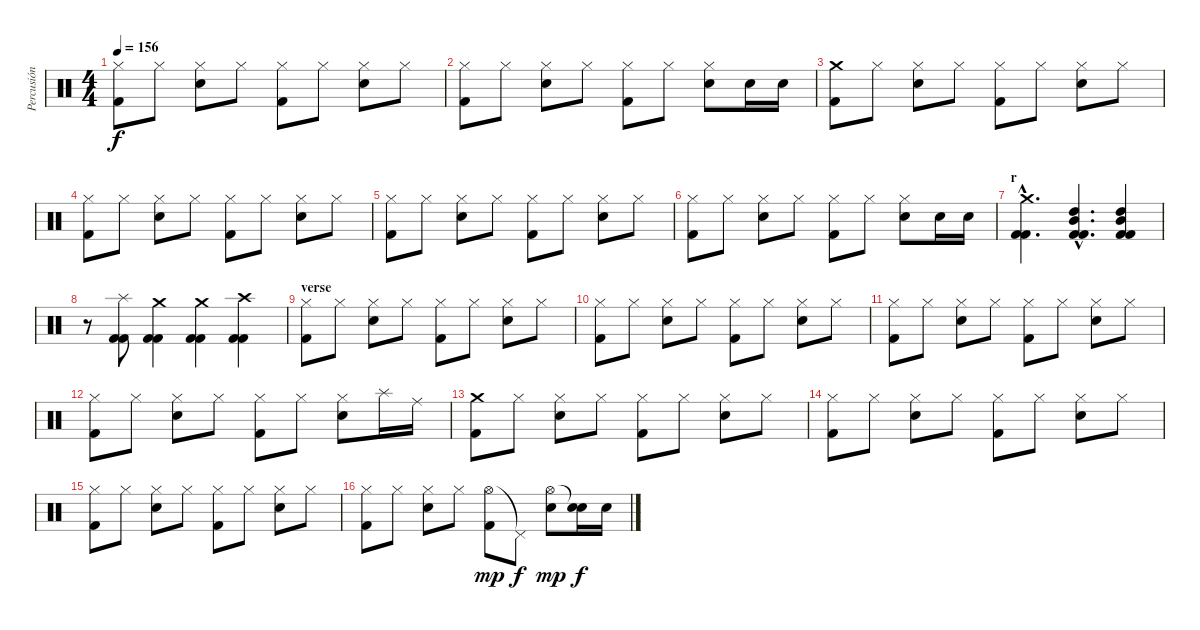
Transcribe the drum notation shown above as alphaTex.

\track ("Percusión" "Percusión") {instrument percussion}
\staff {score}
\articulation defaults
\ts (4 4)
\tempo 156
\clef neutral
\ks c
("Hi-Hat (closed)" "Kick (hit) 2").8{dy f} "Hi-Hat (closed)".8 ("Hi-Hat (closed)" "Electric Snare (hit)").8 "Hi-Hat (closed)".8 ("Hi-Hat (closed)" "Kick (hit) 2").8 "Hi-Hat (closed)".8 ("Hi-Hat (closed)" "Electric Snare (hit)").8 "Hi-Hat (closed)".8 |
("Hi-Hat (closed)" "Kick (hit) 2").8 "Hi-Hat (closed)".8 ("Hi-Hat (closed)" "Electric Snare (hit)").8 "Hi-Hat (closed)".8 ("Hi-Hat (closed)" "Kick (hit) 2").8 "Hi-Hat (closed)".8 ("Hi-Hat (closed)" "Electric Snare (hit)").8 "Electric Snare (hit)".16 "Electric Snare (hit)".16 |
("Crash medium (hit)" "Kick (hit) 2").8 "Hi-Hat (closed)".8 ("Hi-Hat (closed)" "Electric Snare (hit)").8 "Hi-Hat (closed)".8 ("Hi-Hat (closed)" "Kick (hit) 2").8 "Hi-Hat (closed)".8 ("Hi-Hat (closed)" "Electric Snare (hit)").8 "Hi-Hat (closed)".8 |
("Hi-Hat (closed)" "Kick (hit) 2").8 "Hi-Hat (closed)".8 ("Hi-Hat (closed)" "Electric Snare (hit)").8 "Hi-Hat (closed)".8 ("Hi-Hat (closed)" "Kick (hit) 2").8 "Hi-Hat (closed)".8 ("Hi-Hat (closed)" "Electric Snare (hit)").8 "Hi-Hat (closed)".8 |
("Hi-Hat (closed)" "Kick (hit) 2").8 "Hi-Hat (closed)".8 ("Hi-Hat (closed)" "Electric Snare (hit)").8 "Hi-Hat (closed)".8 ("Hi-Hat (closed)" "Kick (hit) 2").8 "Hi-Hat (closed)".8 ("Hi-Hat (closed)" "Electric Snare (hit)").8 "Hi-Hat (closed)".8 |
("Hi-Hat (closed)" "Kick (hit) 2").8 "Hi-Hat (closed)".8 ("Hi-Hat (closed)" "Electric Snare (hit)").8 "Hi-Hat (closed)".8 ("Hi-Hat (closed)" "Kick (hit) 2").8 "Hi-Hat (closed)".8 ("Hi-Hat (closed)" "Electric Snare (hit)").8 "Electric Snare (hit)".16 "Electric Snare (hit)".16 |
\section ("" "r")
("Crash medium (hit)"{hac} "Kick (hit) 2"{hac} "Kick (hit) 2"{hac}).4{d} ("Mid Tom (hit)"{hac} "High Tom (hit)"{hac} "Kick (hit) 2"{hac} "Kick (hit) 2"{hac}).4{d} ("Mid Tom (hit)" "High Tom (hit)" "Kick (hit) 2" "Kick (hit) 2").4 |
r.8 ("Splash (hit)" "Kick (hit) 2" "Kick (hit) 2").8 ("Crash medium (hit)" "Kick (hit) 2" "Kick (hit) 2").4 ("Crash medium (hit)" "Kick (hit) 2" "Kick (hit) 2").4 ("Crash high (hit)" "Kick (hit) 2" "Kick (hit) 2").4 |
\section ("" "verse")
("Hi-Hat (closed)" "Kick (hit) 2").8 "Hi-Hat (closed)".8 ("Hi-Hat (closed)" "Electric Snare (hit)").8 "Hi-Hat (closed)".8 ("Hi-Hat (closed)" "Kick (hit) 2").8 "Hi-Hat (closed)".8 ("Hi-Hat (closed)" "Electric Snare (hit)").8 "Hi-Hat (closed)".8 |
("Hi-Hat (closed)" "Kick (hit) 2").8 "Hi-Hat (closed)".8 ("Hi-Hat (closed)" "Electric Snare (hit)").8 "Hi-Hat (closed)".8 ("Hi-Hat (closed)" "Kick (hit) 2").8 "Hi-Hat (closed)".8 ("Hi-Hat (closed)" "Electric Snare (hit)").8 "Hi-Hat (closed)".8 |
("Hi-Hat (closed)" "Kick (hit) 2").8 "Hi-Hat (closed)".8 ("Hi-Hat (closed)" "Electric Snare (hit)").8 "Hi-Hat (closed)".8 ("Hi-Hat (closed)" "Kick (hit) 2").8 "Hi-Hat (closed)".8 ("Hi-Hat (closed)" "Electric Snare (hit)").8 "Hi-Hat (closed)".8 |
("Hi-Hat (closed)" "Kick (hit) 2").8 "Hi-Hat (closed)".8 ("Hi-Hat (closed)" "Electric Snare (hit)").8 "Hi-Hat (closed)".8 ("Hi-Hat (closed)" "Kick (hit) 2").8 "Hi-Hat (closed)".8 ("Hi-Hat (closed)" "Electric Snare (hit)").8 "Splash (hit)".16 "Ride (middle)".16 |
("Crash medium (hit)" "Kick (hit) 2").8 "Hi-Hat (closed)".8 ("Hi-Hat (closed)" "Electric Snare (hit)").8 "Hi-Hat (closed)".8 ("Hi-Hat (closed)" "Kick (hit) 2").8 "Hi-Hat (closed)".8 ("Hi-Hat (closed)" "Electric Snare (hit)").8 "Hi-Hat (closed)".8 |
("Hi-Hat (closed)" "Kick (hit) 2").8 "Hi-Hat (closed)".8 ("Hi-Hat (closed)" "Electric Snare (hit)").8 "Hi-Hat (closed)".8 ("Hi-Hat (closed)" "Kick (hit) 2").8 "Hi-Hat (closed)".8 ("Hi-Hat (closed)" "Electric Snare (hit)").8 "Hi-Hat (closed)".8 |
("Hi-Hat (closed)" "Kick (hit) 2").8 "Hi-Hat (closed)".8 ("Hi-Hat (closed)" "Electric Snare (hit)").8 "Hi-Hat (closed)".8 ("Hi-Hat (closed)" "Kick (hit) 2").8 "Hi-Hat (closed)".8 ("Hi-Hat (closed)" "Electric Snare (hit)").8 "Hi-Hat (closed)".8 |
("Hi-Hat (closed)" "Kick (hit) 2").8 "Hi-Hat (closed)".8 ("Hi-Hat (closed)" "Electric Snare (hit)").8 "Hi-Hat (closed)".8 ("Hi-Hat (open)" "Kick (hit) 2").8{dy mp} "Pedal Hi-Hat (hit)"{t}.8{dy f} ("Hi-Hat (open)" "Electric Snare (hit)").8{dy mp} ("Snare (hit)"{t} "Electric Snare (hit)").16{dy f} "Electric Snare (hit)".16
